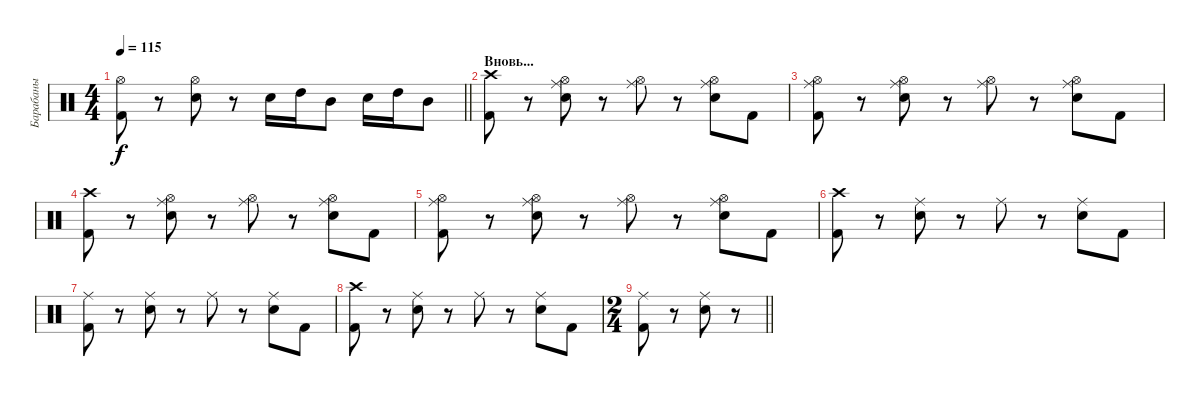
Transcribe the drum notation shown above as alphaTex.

\track ("Барабаны" "Барабаны") {instrument percussion}
\staff {score}
\articulation defaults
\ts (4 4)
\tempo 115
\clef neutral
\barLineRight lightlight
\ks c
("Kick (hit) 2" "Hi-Hat (open)").8{dy f} r.8 ("Snare (hit) 2" "Hi-Hat (open)").8 r.8 "Electric Snare (hit)".16 "High Tom (hit)".16 "Mid Tom (hit)".8 "Electric Snare (hit)".16 "High Tom (hit)".16 "Mid Tom (hit)".8 |
\section ("" "Вновь...")
("Kick (hit) 2" "Crash high (hit)").8 r.8 ("Snare (hit) 2" "Ride (middle)" "Hi-Hat (open)").8 r.8 ("Ride (middle)" "Hi-Hat (open)").8 r.8 ("Snare (hit) 2" "Ride (middle)" "Hi-Hat (open)").8 "Kick (hit) 2".8 |
("Kick (hit) 2" "Ride (middle)" "Hi-Hat (open)").8 r.8 ("Snare (hit) 2" "Ride (middle)" "Hi-Hat (open)").8 r.8 ("Ride (middle)" "Hi-Hat (open)").8 r.8 ("Snare (hit) 2" "Ride (middle)" "Hi-Hat (open)").8 "Kick (hit) 2".8 |
("Kick (hit) 2" "Crash high (hit)").8 r.8 ("Snare (hit) 2" "Ride (middle)" "Hi-Hat (open)").8 r.8 ("Ride (middle)" "Hi-Hat (open)").8 r.8 ("Snare (hit) 2" "Ride (middle)" "Hi-Hat (open)").8 "Kick (hit) 2".8 |
("Kick (hit) 2" "Ride (middle)" "Hi-Hat (open)").8 r.8 ("Snare (hit) 2" "Ride (middle)" "Hi-Hat (open)").8 r.8 ("Ride (middle)" "Hi-Hat (open)").8 r.8 ("Snare (hit) 2" "Ride (middle)" "Hi-Hat (open)").8 "Kick (hit) 2".8 |
("Kick (hit) 2" "Crash high (hit)").8 r.8 ("Snare (hit) 2" "Ride (middle)").8 r.8 "Ride (middle)".8 r.8 ("Snare (hit) 2" "Ride (middle)").8 "Kick (hit) 2".8 |
("Kick (hit) 2" "Ride (middle)").8 r.8 ("Snare (hit) 2" "Ride (middle)").8 r.8 "Ride (middle)".8 r.8 ("Snare (hit) 2" "Ride (middle)").8 "Kick (hit) 2".8 |
("Kick (hit) 2" "Crash high (hit)").8 r.8 ("Snare (hit) 2" "Ride (middle)").8 r.8 "Ride (middle)".8 r.8 ("Snare (hit) 2" "Ride (middle)").8 "Kick (hit) 2".8 |
\ts (2 4)
\barLineRight lightlight
("Ride (middle)" "Kick (hit) 2").8 r.8 ("Snare (hit) 2" "Ride (middle)").8 r.8
